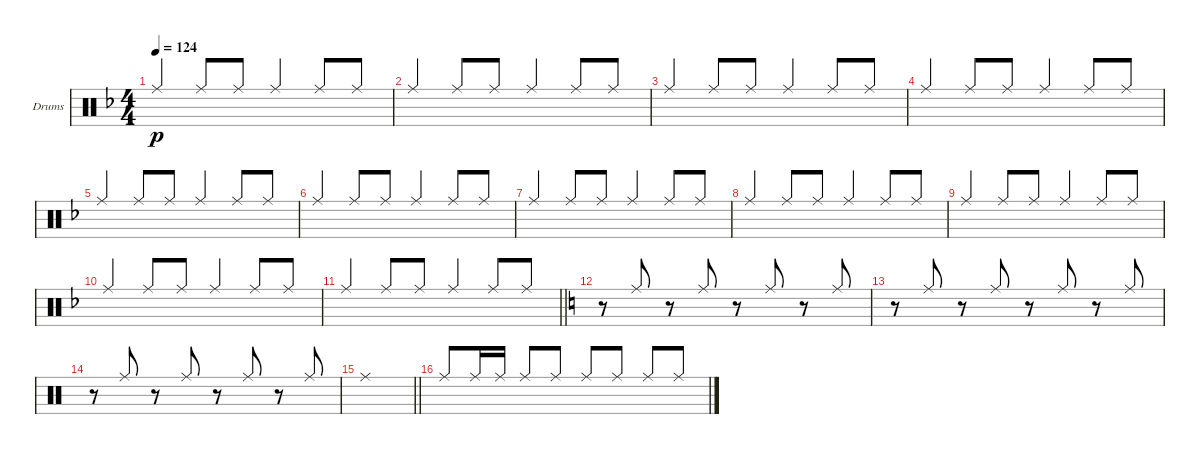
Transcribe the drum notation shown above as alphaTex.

\bracketExtendMode groupsimilarinstruments
\firstSystemTrackNameOrientation horizontal
\otherSystemsTrackNameOrientation horizontal
\track ("Ride Cymbal" "Drums") {instrument percussion}
\staff {score}
\articulation defaults
\ts (4 4)
\tempo 124
\clef neutral
\scale
0.333333
\ks dminor "Ride (middle)".4{dy p beam invert} "Ride (middle)".8{beam invert} "Ride (middle)".8 "Ride (middle)".4{beam invert} "Ride (middle)".8{beam invert} "Ride (middle)".8
|
\scale
0.333333 "Ride (middle)".4{beam invert} "Ride (middle)".8{beam invert} "Ride (middle)".8 "Ride (middle)".4{beam invert} "Ride (middle)".8{beam invert} "Ride (middle)".8 |
\scale
0.333333 "Ride (middle)".4{beam invert} "Ride (middle)".8{beam invert} "Ride (middle)".8 "Ride (middle)".4{beam invert} "Ride (middle)".8{beam invert} "Ride (middle)".8 |
\scale
0.333333 "Ride (middle)".4{beam invert} "Ride (middle)".8{beam invert} "Ride (middle)".8 "Ride (middle)".4{beam invert} "Ride (middle)".8{beam invert} "Ride (middle)".8 |
\scale
0.333333 "Ride (middle)".4{beam invert} "Ride (middle)".8{beam invert} "Ride (middle)".8 "Ride (middle)".4{beam invert} "Ride (middle)".8{beam invert} "Ride (middle)".8 |
\scale
0.333333 "Ride (middle)".4{beam invert} "Ride (middle)".8{beam invert} "Ride (middle)".8 "Ride (middle)".4{beam invert} "Ride (middle)".8{beam invert} "Ride (middle)".8 |
\scale
0.333333 "Ride (middle)".4{beam invert} "Ride (middle)".8{beam invert} "Ride (middle)".8 "Ride (middle)".4{beam invert} "Ride (middle)".8{beam invert} "Ride (middle)".8 |
\scale
0.333333 "Ride (middle)".4{beam invert} "Ride (middle)".8{beam invert} "Ride (middle)".8 "Ride (middle)".4{beam invert} "Ride (middle)".8{beam invert} "Ride (middle)".8 |
\scale
0.333333 "Ride (middle)".4{beam invert} "Ride (middle)".8{beam invert} "Ride (middle)".8 "Ride (middle)".4{beam invert} "Ride (middle)".8{beam invert} "Ride (middle)".8 |
\scale
0.273171 "Ride (middle)".4{beam invert} "Ride (middle)".8{beam invert} "Ride (middle)".8 "Ride (middle)".4{beam invert} "Ride (middle)".8{beam invert} "Ride (middle)".8 |
\scale
0.273171
\barLineRight lightlight "Ride (middle)".4{beam invert} "Ride (middle)".8{beam invert} "Ride (middle)".8 "Ride (middle)".4{beam invert} "Ride (middle)".8{beam invert} "Ride (middle)".8
|
\scale
0.453659
\ks c
r.8{beam invert} "Ride (middle)".8{beam invert} r.8{beam invert} "Ride (middle)".8{beam invert} r.8{beam invert} "Ride (middle)".8{beam invert} r.8{beam invert} "Ride (middle)".8{beam invert} |
\scale
0.333333 r.8{beam invert} "Ride (middle)".8{beam invert} r.8{beam invert} "Ride (middle)".8{beam invert} r.8{beam invert} "Ride (middle)".8{beam invert} r.8{beam invert} "Ride (middle)".8{beam invert} |
\scale
0.333333 r.8{beam invert} "Ride (middle)".8{beam invert} r.8{beam invert} "Ride (middle)".8{beam invert} r.8{beam invert} "Ride (middle)".8{beam invert} r.8{beam invert} "Ride (middle)".8{beam invert} |
\scale
0.333333
\barLineRight lightlight "Ride (middle)".1
|
\scale
0.333333 "Ride (middle)".8{beam invert} "Ride (middle)".16 "Ride (middle)".16 "Ride (middle)".8{beam invert} "Ride (middle)".8 "Ride (middle)".8{beam invert} "Ride (middle)".8 "Ride (middle)".8{beam invert} "Ride (middle)".8
